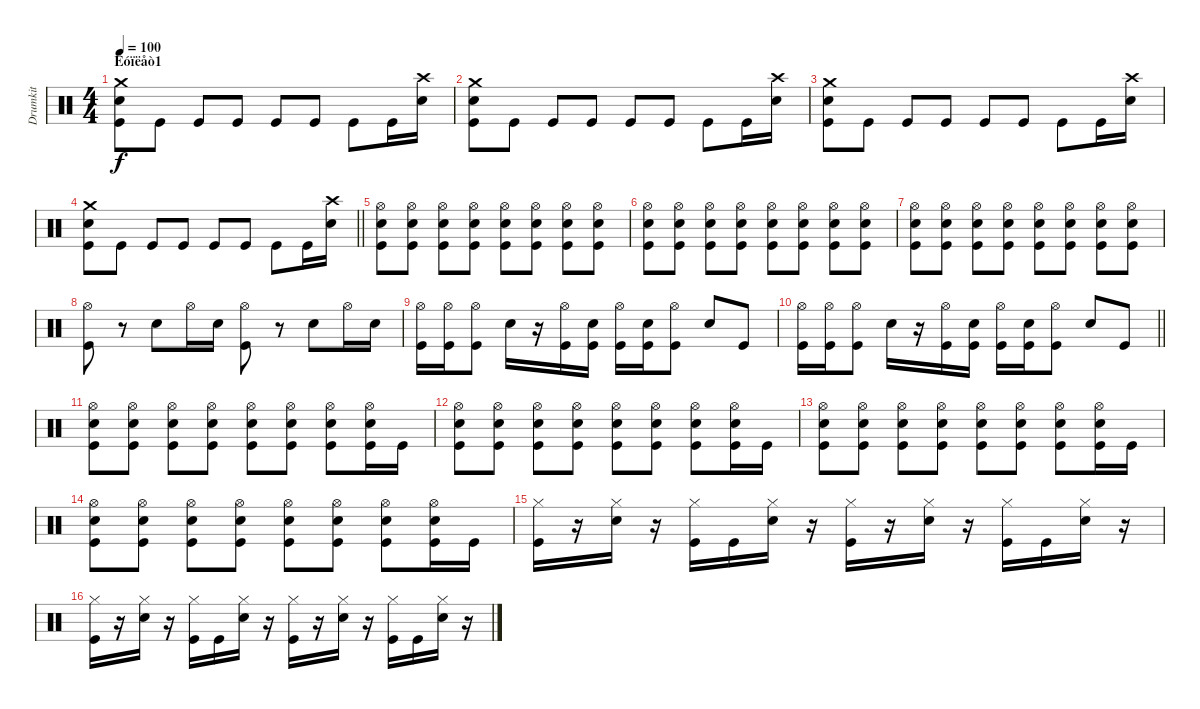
\track ("Drumkit" "Drumkit") {instrument percussion}
\staff {score}
\articulation defaults
\ts (4 4)
\section ("" "Êóïëåò1")
\tempo 100
\clef neutral
\ks c
("Crash medium (hit)" "Snare (hit) 2" "Kick (hit)").8{dy f} "Kick (hit)".8 "Kick (hit)".8 "Kick (hit)".8 "Kick (hit)".8 "Kick (hit)".8 "Kick (hit)".8 "Kick (hit)".16 ("Crash high (hit)" "Snare (hit) 2").16 |
("Crash medium (hit)" "Snare (hit) 2" "Kick (hit)").8 "Kick (hit)".8 "Kick (hit)".8 "Kick (hit)".8 "Kick (hit)".8 "Kick (hit)".8 "Kick (hit)".8 "Kick (hit)".16 ("Crash high (hit)" "Snare (hit) 2").16 |
("Crash medium (hit)" "Snare (hit) 2" "Kick (hit)").8 "Kick (hit)".8 "Kick (hit)".8 "Kick (hit)".8 "Kick (hit)".8 "Kick (hit)".8 "Kick (hit)".8 "Kick (hit)".16 ("Crash high (hit)" "Snare (hit) 2").16 |
\barLineRight lightlight
("Crash medium (hit)" "Snare (hit) 2" "Kick (hit)").8 "Kick (hit)".8 "Kick (hit)".8 "Kick (hit)".8 "Kick (hit)".8 "Kick (hit)".8 "Kick (hit)".8 "Kick (hit)".16 ("Crash high (hit)" "Snare (hit) 2").16 |
("Hi-Hat (open)" "Snare (hit) 2" "Kick (hit)").8 ("Hi-Hat (open)" "Snare (hit) 2" "Kick (hit)").8 ("Hi-Hat (open)" "Snare (hit) 2" "Kick (hit)").8 ("Hi-Hat (open)" "Snare (hit) 2" "Kick (hit)").8 ("Hi-Hat (open)" "Snare (hit) 2" "Kick (hit)").8 ("Hi-Hat (open)" "Snare (hit) 2" "Kick (hit)").8 ("Hi-Hat (open)" "Snare (hit) 2" "Kick (hit)").8 ("Hi-Hat (open)" "Snare (hit) 2" "Kick (hit)").8 |
("Hi-Hat (open)" "Snare (hit) 2" "Kick (hit)").8 ("Hi-Hat (open)" "Snare (hit) 2" "Kick (hit)").8 ("Hi-Hat (open)" "Snare (hit) 2" "Kick (hit)").8 ("Hi-Hat (open)" "Snare (hit) 2" "Kick (hit)").8 ("Hi-Hat (open)" "Snare (hit) 2" "Kick (hit)").8 ("Hi-Hat (open)" "Snare (hit) 2" "Kick (hit)").8 ("Hi-Hat (open)" "Snare (hit) 2" "Kick (hit)").8 ("Hi-Hat (open)" "Snare (hit) 2" "Kick (hit)").8 |
("Hi-Hat (open)" "Snare (hit) 2" "Kick (hit)").8 ("Hi-Hat (open)" "Snare (hit) 2" "Kick (hit)").8 ("Hi-Hat (open)" "Snare (hit) 2" "Kick (hit)").8 ("Hi-Hat (open)" "Snare (hit) 2" "Kick (hit)").8 ("Hi-Hat (open)" "Snare (hit) 2" "Kick (hit)").8 ("Hi-Hat (open)" "Snare (hit) 2" "Kick (hit)").8 ("Hi-Hat (open)" "Snare (hit) 2" "Kick (hit)").8 ("Hi-Hat (open)" "Snare (hit) 2" "Kick (hit)").8 |
("Hi-Hat (open)" "Kick (hit)").8 r.8 "Snare (hit) 2".8 "Hi-Hat (open)".16 "Snare (hit) 2".16 ("Hi-Hat (open)" "Kick (hit)").8 r.8 "Snare (hit) 2".8 "Hi-Hat (open)".16 "Snare (hit) 2".16 |
("Hi-Hat (open)" "Kick (hit)").16 ("Hi-Hat (open)" "Kick (hit)").16 ("Hi-Hat (open)" "Kick (hit)").8 "Snare (hit) 2".16 r.16 ("Hi-Hat (open)" "Kick (hit)").16 ("Snare (hit) 2" "Kick (hit)").16 ("Hi-Hat (open)" "Kick (hit)").16 ("Snare (hit) 2" "Kick (hit)").16 ("Hi-Hat (open)" "Kick (hit)").8 "Snare (hit) 2".8 "Kick (hit)".8 |
\barLineRight lightlight
("Hi-Hat (open)" "Kick (hit)").16 ("Hi-Hat (open)" "Kick (hit)").16 ("Hi-Hat (open)" "Kick (hit)").8 "Snare (hit) 2".16 r.16 ("Hi-Hat (open)" "Kick (hit)").16 ("Snare (hit) 2" "Kick (hit)").16 ("Hi-Hat (open)" "Kick (hit)").16 ("Snare (hit) 2" "Kick (hit)").16 ("Hi-Hat (open)" "Kick (hit)").8 "Snare (hit) 2".8 "Kick (hit)".8 |
("Hi-Hat (open)" "Snare (hit) 2" "Kick (hit)").8 ("Hi-Hat (open)" "Snare (hit) 2" "Kick (hit)").8 ("Hi-Hat (open)" "Snare (hit) 2" "Kick (hit)").8 ("Hi-Hat (open)" "Snare (hit) 2" "Kick (hit)").8 ("Hi-Hat (open)" "Snare (hit) 2" "Kick (hit)").8 ("Hi-Hat (open)" "Snare (hit) 2" "Kick (hit)").8 ("Hi-Hat (open)" "Snare (hit) 2" "Kick (hit)").8 ("Hi-Hat (open)" "Snare (hit) 2" "Kick (hit)").16 "Kick (hit)".16 |
("Hi-Hat (open)" "Snare (hit) 2" "Kick (hit)").8 ("Hi-Hat (open)" "Snare (hit) 2" "Kick (hit)").8 ("Hi-Hat (open)" "Snare (hit) 2" "Kick (hit)").8 ("Hi-Hat (open)" "Snare (hit) 2" "Kick (hit)").8 ("Hi-Hat (open)" "Snare (hit) 2" "Kick (hit)").8 ("Hi-Hat (open)" "Snare (hit) 2" "Kick (hit)").8 ("Hi-Hat (open)" "Snare (hit) 2" "Kick (hit)").8 ("Hi-Hat (open)" "Snare (hit) 2" "Kick (hit)").16 "Kick (hit)".16 |
("Hi-Hat (open)" "Snare (hit) 2" "Kick (hit)").8 ("Hi-Hat (open)" "Snare (hit) 2" "Kick (hit)").8 ("Hi-Hat (open)" "Snare (hit) 2" "Kick (hit)").8 ("Hi-Hat (open)" "Snare (hit) 2" "Kick (hit)").8 ("Hi-Hat (open)" "Snare (hit) 2" "Kick (hit)").8 ("Hi-Hat (open)" "Snare (hit) 2" "Kick (hit)").8 ("Hi-Hat (open)" "Snare (hit) 2" "Kick (hit)").8 ("Hi-Hat (open)" "Snare (hit) 2" "Kick (hit)").16 "Kick (hit)".16 |
("Hi-Hat (open)" "Snare (hit) 2" "Kick (hit)").8 ("Hi-Hat (open)" "Snare (hit) 2" "Kick (hit)").8 ("Hi-Hat (open)" "Snare (hit) 2" "Kick (hit)").8 ("Hi-Hat (open)" "Snare (hit) 2" "Kick (hit)").8 ("Hi-Hat (open)" "Snare (hit) 2" "Kick (hit)").8 ("Hi-Hat (open)" "Snare (hit) 2" "Kick (hit)").8 ("Hi-Hat (open)" "Snare (hit) 2" "Kick (hit)").8 ("Hi-Hat (open)" "Snare (hit) 2" "Kick (hit)").16 "Kick (hit)".16 |
("Hi-Hat (closed)" "Kick (hit)").16 r.16 ("Hi-Hat (closed)" "Snare (hit) 2").16 r.16 ("Hi-Hat (closed)" "Kick (hit)").16 "Kick (hit)".16 ("Hi-Hat (closed)" "Snare (hit) 2").16 r.16 ("Hi-Hat (closed)" "Kick (hit)").16 r.16 ("Hi-Hat (closed)" "Snare (hit) 2").16 r.16 ("Hi-Hat (closed)" "Kick (hit)").16 "Kick (hit)".16 ("Hi-Hat (closed)" "Snare (hit) 2").16 r.16 |
("Hi-Hat (closed)" "Kick (hit)").16 r.16 ("Hi-Hat (closed)" "Snare (hit) 2").16 r.16 ("Hi-Hat (closed)" "Kick (hit)").16 "Kick (hit)".16 ("Hi-Hat (closed)" "Snare (hit) 2").16 r.16 ("Hi-Hat (closed)" "Kick (hit)").16 r.16 ("Hi-Hat (closed)" "Snare (hit) 2").16 r.16 ("Hi-Hat (closed)" "Kick (hit)").16 "Kick (hit)".16 ("Hi-Hat (closed)" "Snare (hit) 2").16 r.16
